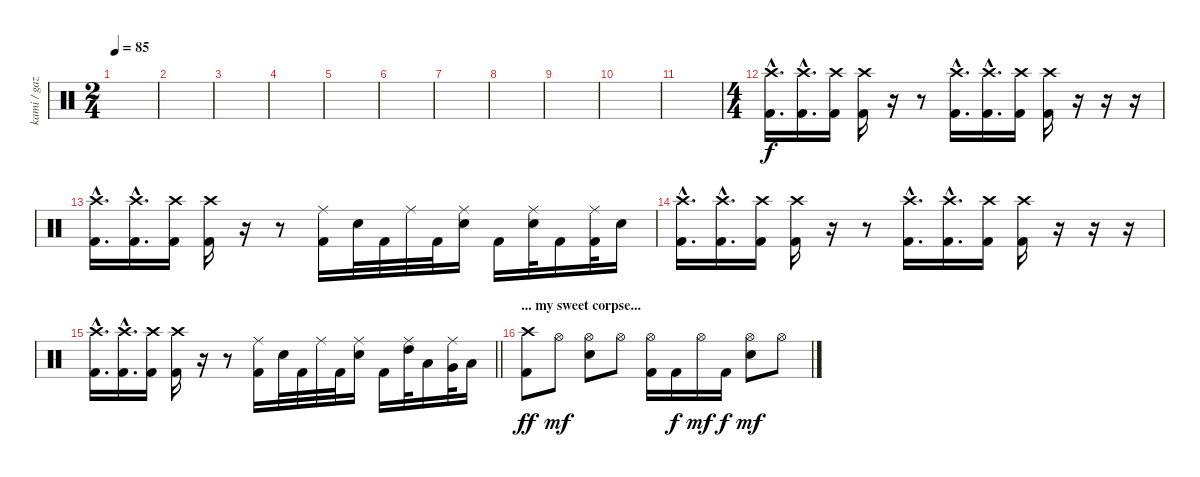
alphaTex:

\track ("kami / gaz (?)" "kami / gaz") {instrument percussion}
\staff {score}
\articulation defaults
\ts (2 4)
\tempo 85
\clef neutral
\ks c
|
|
|
|
|
|
|
|
|
|
|
\ts (4 4)
("Kick (hit) 2"{hac} "Crash high (hit)"{hac}).16{d} ("Kick (hit) 2"{hac} "Crash high (hit)"{hac}).16{d} ("Kick (hit) 2" "Crash high (hit)").16 ("Kick (hit) 2" "Crash high (hit)").16 r.16 r.8 ("Kick (hit) 2"{hac} "Crash high (hit)"{hac}).16{d} ("Kick (hit) 2"{hac} "Crash high (hit)"{hac}).16{d} ("Kick (hit) 2" "Crash high (hit)").16 ("Kick (hit) 2" "Crash high (hit)").16 r.16 r.16 r.16 |
("Kick (hit) 2"{hac} "Crash high (hit)"{hac}).16{d} ("Kick (hit) 2"{hac} "Crash high (hit)"{hac}).16{d} ("Kick (hit) 2" "Crash high (hit)").16 ("Kick (hit) 2" "Crash high (hit)").16 r.16 r.8 ("Kick (hit) 2" "Ride (middle)").16 "Electric Snare (hit)".32 "Kick (hit) 2".32 "Ride (middle)".32 "Kick (hit) 2".32 ("Electric Snare (hit)" "Ride (middle)").16 "Kick (hit) 2".16 ("Electric Snare (hit)" "Ride (middle)").32 "Kick (hit) 2".16 ("Kick (hit) 2" "Ride (middle)").32 "Electric Snare (hit)".16 |
("Kick (hit) 2"{hac} "Crash high (hit)"{hac}).16{d} ("Kick (hit) 2"{hac} "Crash high (hit)"{hac}).16{d} ("Kick (hit) 2" "Crash high (hit)").16 ("Kick (hit) 2" "Crash high (hit)").16 r.16 r.8 ("Kick (hit) 2"{hac} "Crash high (hit)"{hac}).16{d} ("Kick (hit) 2"{hac} "Crash high (hit)"{hac}).16{d} ("Kick (hit) 2" "Crash high (hit)").16 ("Kick (hit) 2" "Crash high (hit)").16 r.16 r.16 r.16 |
\barLineRight lightlight
("Kick (hit) 2"{hac} "Crash high (hit)"{hac}).16{d} ("Kick (hit) 2"{hac} "Crash high (hit)"{hac}).16{d} ("Kick (hit) 2" "Crash high (hit)").16 ("Kick (hit) 2" "Crash high (hit)").16 r.16 r.8 ("Kick (hit) 2" "Ride (middle)").16 "Electric Snare (hit)".32 "Kick (hit) 2".32 "Ride (middle)".32 "Kick (hit) 2".32 ("Electric Snare (hit)" "Ride (middle)").16 "Kick (hit) 2".16 ("High Tom (hit)" "Ride (middle)").32 "Low Tom (hit)".16 ("Very Low Tom (hit)" "Ride (middle)").32 "Low Floor Tom (hit)".16 |
\section ("" "... my sweet corpse...")
("Kick (hit) 2" "Crash high (hit)").8{dy ff} "Hi-Hat (open)".8{dy mf} ("Electric Snare (hit)" "Hi-Hat (open)").8 "Hi-Hat (open)".8 ("Kick (hit) 2" "Hi-Hat (open)").16 "Kick (hit) 2".16{dy f} "Hi-Hat (open)".16{dy mf} "Kick (hit) 2".16{dy f} ("Electric Snare (hit)" "Hi-Hat (open)").8{dy mf} "Hi-Hat (open)".8
